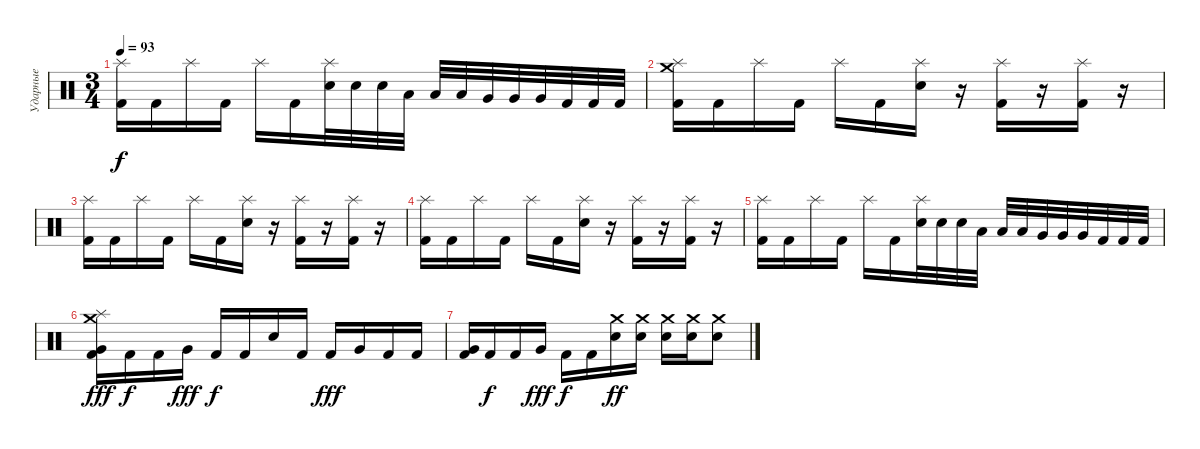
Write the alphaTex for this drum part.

\track ("Ударные" "Ударные") {instrument percussion}
\staff {score}
\articulation defaults
\ts (3 4)
\tempo 93
\clef neutral
\ks c
("Splash (hit)" "Kick (hit) 2").16{dy f} "Kick (hit) 2".16 "Splash (hit)".16 "Kick (hit) 2".16 "Splash (hit)".16 "Kick (hit) 2".16 ("Splash (hit)" "Electric Snare (hit)").32 "Electric Snare (hit)".32 "Electric Snare (hit)".32 "Low Tom (hit)".32 "Low Tom (hit)".32 "Low Tom (hit)".32 "Very Low Tom (hit)".32 "Very Low Tom (hit)".32 "Very Low Tom (hit)".32 "Kick (hit) 2".32 "Kick (hit) 2".32 "Kick (hit) 2".32 |
("Splash (hit)" "Crash medium (hit)" "Kick (hit) 2").16 "Kick (hit) 2".16 "Splash (hit)".16 "Kick (hit) 2".16 "Splash (hit)".16 "Kick (hit) 2".16 ("Splash (hit)" "Electric Snare (hit)").16 r.16 ("Splash (hit)" "Kick (hit) 2").16 r.16 ("Splash (hit)" "Kick (hit) 2").16 r.16 |
("Splash (hit)" "Kick (hit) 2").16 "Kick (hit) 2".16 "Splash (hit)".16 "Kick (hit) 2".16 "Splash (hit)".16 "Kick (hit) 2".16 ("Splash (hit)" "Electric Snare (hit)").16 r.16 ("Splash (hit)" "Kick (hit) 2").16 r.16 ("Splash (hit)" "Kick (hit) 2").16 r.16 |
("Splash (hit)" "Kick (hit) 2").16 "Kick (hit) 2".16 "Splash (hit)".16 "Kick (hit) 2".16 "Splash (hit)".16 "Kick (hit) 2".16 ("Splash (hit)" "Electric Snare (hit)").16 r.16 ("Splash (hit)" "Kick (hit) 2").16 r.16 ("Splash (hit)" "Kick (hit) 2").16 r.16 |
("Splash (hit)" "Kick (hit) 2").16 "Kick (hit) 2".16 "Splash (hit)".16 "Kick (hit) 2".16 "Splash (hit)".16 "Kick (hit) 2".16 ("Splash (hit)" "Electric Snare (hit)").32 "Electric Snare (hit)".32 "Electric Snare (hit)".32 "Low Tom (hit)".32 "Low Tom (hit)".32 "Low Tom (hit)".32 "Very Low Tom (hit)".32 "Very Low Tom (hit)".32 "Very Low Tom (hit)".32 "Kick (hit) 2".32 "Kick (hit) 2".32 "Kick (hit) 2".32 |
("Splash (hit)" "Crash medium (hit)" "Very Low Tom (hit)" "Kick (hit) 2").16{dy fff} "Kick (hit) 2".16{dy f} "Kick (hit) 2".16 "Very Low Tom (hit)".16{dy fff} "Kick (hit) 2".16{dy f} "Kick (hit) 2".16 "Electric Snare (hit)".16 "Kick (hit) 2".16 "Kick (hit) 2".16{dy fff} "Very Low Tom (hit)".16 "Kick (hit) 2".16 "Kick (hit) 2".16 |
("Very Low Tom (hit)" "Kick (hit) 2").16 "Kick (hit) 2".16{dy f} "Kick (hit) 2".16 "Very Low Tom (hit)".16{dy fff} "Kick (hit) 2".16{dy f} "Kick (hit) 2".16 ("Crash medium (hit)" "Electric Snare (hit)").16{dy ff} ("Crash medium (hit)" "Electric Snare (hit)").16 ("Crash medium (hit)" "Electric Snare (hit)").16 ("Crash medium (hit)" "Electric Snare (hit)").16 ("Crash medium (hit)" "Electric Snare (hit)").8
